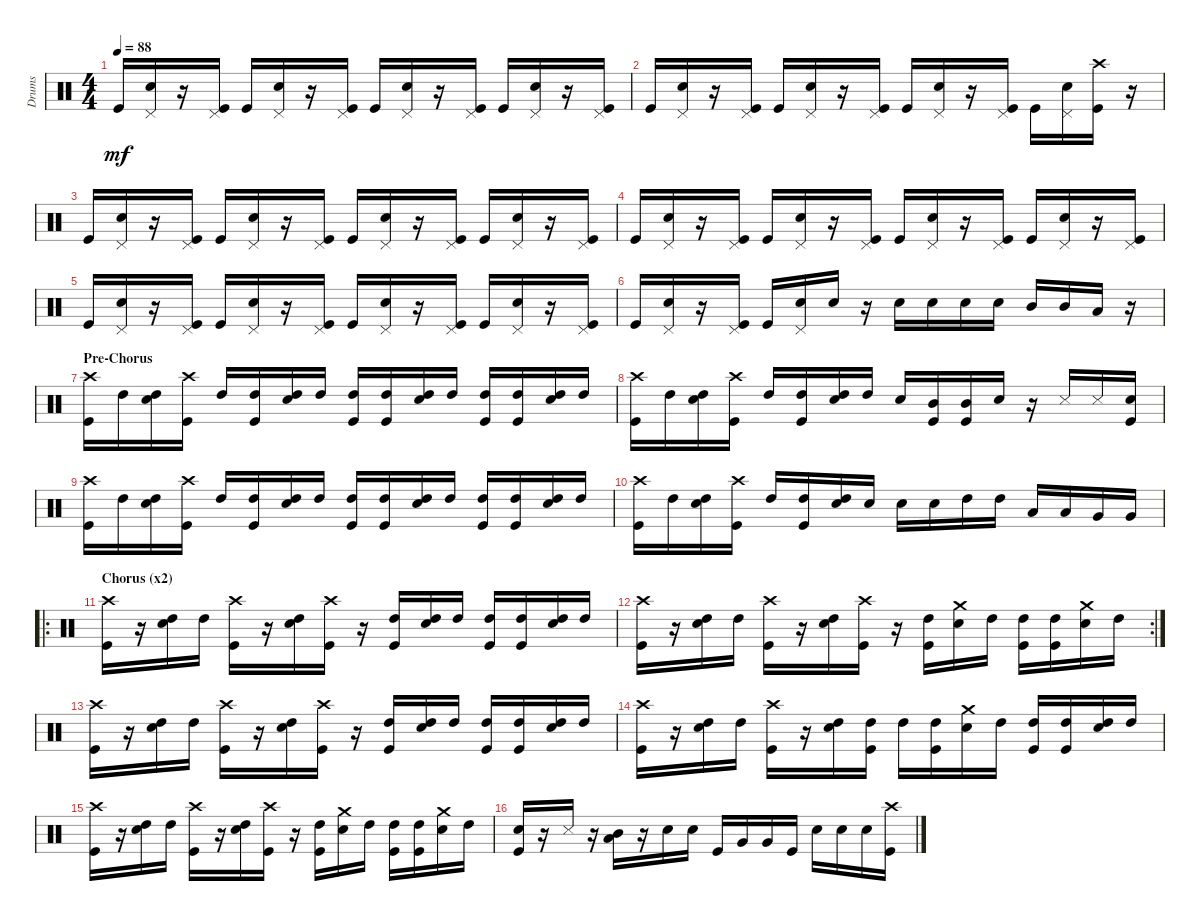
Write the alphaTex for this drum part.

\track ("Drums" "Drums") {instrument percussion}
\staff {score}
\articulation defaults
\ts (4 4)
\tempo 88
\clef neutral
\ks c "Kick (hit)".16{dy mf}
("Snare (hit) 2" "Pedal Hi-Hat (hit)").16 r.16 ("Kick (hit)" "Pedal Hi-Hat (hit)").16 "Kick (hit)".16 ("Snare (hit) 2" "Pedal Hi-Hat (hit)").16 r.16 ("Pedal Hi-Hat (hit)" "Kick (hit)").16 "Kick (hit)".16 ("Snare (hit) 2" "Pedal Hi-Hat (hit)").16 r.16 ("Kick (hit)" "Pedal Hi-Hat (hit)").16 "Kick (hit)".16 ("Snare (hit) 2" "Pedal Hi-Hat (hit)").16 r.16 ("Kick (hit)" "Pedal Hi-Hat (hit)").16 |
"Kick (hit)".16 ("Snare (hit) 2" "Pedal Hi-Hat (hit)").16 r.16 ("Kick (hit)" "Pedal Hi-Hat (hit)").16 "Kick (hit)".16 ("Snare (hit) 2" "Pedal Hi-Hat (hit)").16 r.16 ("Pedal Hi-Hat (hit)" "Kick (hit)").16 "Kick (hit)".16 ("Snare (hit) 2" "Pedal Hi-Hat (hit)").16 r.16 ("Kick (hit)" "Pedal Hi-Hat (hit)").16 "Kick (hit)".16 ("Snare (hit) 2" "Pedal Hi-Hat (hit)").16 ("Kick (hit)" "Crash high (hit)").16 r.16 |
"Kick (hit)".16 ("Snare (hit) 2" "Pedal Hi-Hat (hit)").16 r.16 ("Kick (hit)" "Pedal Hi-Hat (hit)").16 "Kick (hit)".16 ("Snare (hit) 2" "Pedal Hi-Hat (hit)").16 r.16 ("Pedal Hi-Hat (hit)" "Kick (hit)").16 "Kick (hit)".16 ("Snare (hit) 2" "Pedal Hi-Hat (hit)").16 r.16 ("Kick (hit)" "Pedal Hi-Hat (hit)").16 "Kick (hit)".16 ("Snare (hit) 2" "Pedal Hi-Hat (hit)").16 r.16 ("Kick (hit)" "Pedal Hi-Hat (hit)").16 |
"Kick (hit)".16 ("Snare (hit) 2" "Pedal Hi-Hat (hit)").16 r.16 ("Kick (hit)" "Pedal Hi-Hat (hit)").16 "Kick (hit)".16 ("Snare (hit) 2" "Pedal Hi-Hat (hit)").16 r.16 ("Pedal Hi-Hat (hit)" "Kick (hit)").16 "Kick (hit)".16 ("Snare (hit) 2" "Pedal Hi-Hat (hit)").16 r.16 ("Kick (hit)" "Pedal Hi-Hat (hit)").16 "Kick (hit)".16 ("Snare (hit) 2" "Pedal Hi-Hat (hit)").16 r.16 ("Kick (hit)" "Pedal Hi-Hat (hit)").16 |
"Kick (hit)".16 ("Snare (hit) 2" "Pedal Hi-Hat (hit)").16 r.16 ("Kick (hit)" "Pedal Hi-Hat (hit)").16 "Kick (hit)".16 ("Snare (hit) 2" "Pedal Hi-Hat (hit)").16 r.16 ("Pedal Hi-Hat (hit)" "Kick (hit)").16 "Kick (hit)".16 ("Snare (hit) 2" "Pedal Hi-Hat (hit)").16 r.16 ("Kick (hit)" "Pedal Hi-Hat (hit)").16 "Kick (hit)".16 ("Snare (hit) 2" "Pedal Hi-Hat (hit)").16 r.16 ("Kick (hit)" "Pedal Hi-Hat (hit)").16 |
"Kick (hit)".16 ("Snare (hit) 2" "Pedal Hi-Hat (hit)").16 r.16 ("Kick (hit)" "Pedal Hi-Hat (hit)").16 "Kick (hit)".16 ("Snare (hit) 2" "Pedal Hi-Hat (hit)").16 "Snare (hit) 2".16 r.16 "Snare (hit) 2".16 "Snare (hit) 2".16 "Snare (hit) 2".16 "Snare (hit) 2".16 "Mid Tom (hit)".16 "Mid Tom (hit)".16 "Low Tom (hit)".16 r.16 |
\section ("" "Pre-Chorus")
("Kick (hit)" "Crash high (hit)").16 "High Tom (hit)".16 ("High Tom (hit)" "Snare (hit) 2").16 ("Kick (hit)" "Crash high (hit)").16 "High Tom (hit)".16 ("High Tom (hit)" "Kick (hit)").16 ("High Tom (hit)" "Snare (hit) 2").16 "High Tom (hit)".16 ("Kick (hit)" "High Tom (hit)").16 ("High Tom (hit)" "Kick (hit)").16 ("High Tom (hit)" "Snare (hit) 2").16 "High Tom (hit)".16 ("Kick (hit)" "High Tom (hit)").16 ("High Tom (hit)" "Kick (hit)").16 ("High Tom (hit)" "Snare (hit) 2").16 "High Tom (hit)".16 |
("Kick (hit)" "Crash high (hit)").16 "High Tom (hit)".16 ("High Tom (hit)" "Snare (hit) 2").16 ("Kick (hit)" "Crash high (hit)").16 "High Tom (hit)".16 ("High Tom (hit)" "Kick (hit)").16 ("High Tom (hit)" "Snare (hit) 2").16 "High Tom (hit)".16 "Snare (hit) 2".16 ("Kick (hit)" "Mid Tom (hit)").16 ("Kick (hit)" "Mid Tom (hit)").16 "Snare (hit) 2".16 r.16 "Snare (side stick) 3".16 "Snare (side stick) 3".16 ("Snare (hit) 2" "Kick (hit)").16 |
("Kick (hit)" "Crash high (hit)").16 "High Tom (hit)".16 ("High Tom (hit)" "Snare (hit) 2").16 ("Kick (hit)" "Crash high (hit)").16 "High Tom (hit)".16 ("High Tom (hit)" "Kick (hit)").16 ("High Tom (hit)" "Snare (hit) 2").16 "High Tom (hit)".16 ("Kick (hit)" "High Tom (hit)").16 ("High Tom (hit)" "Kick (hit)").16 ("High Tom (hit)" "Snare (hit) 2").16 "High Tom (hit)".16 ("Kick (hit)" "High Tom (hit)").16 ("High Tom (hit)" "Kick (hit)").16 ("High Tom (hit)" "Snare (hit) 2").16 "High Tom (hit)".16 |
("Kick (hit)" "Crash high (hit)").16 "High Tom (hit)".16 ("High Tom (hit)" "Snare (hit) 2").16 ("Kick (hit)" "Crash high (hit)").16 "High Tom (hit)".16 ("High Tom (hit)" "Kick (hit)").16 ("High Tom (hit)" "Snare (hit) 2").16 "Snare (hit) 2".16 "Snare (hit) 2".16 "Snare (hit) 2".16 "High Tom (hit)".16 "High Tom (hit)".16 "Low Tom (hit)".16 "Low Tom (hit)".16 "Very Low Tom (hit)".16 "Very Low Tom (hit)".16 |
\ro
\section ("" "Chorus (x2)")
("Kick (hit)" "Crash high (hit)").16 r.16 ("Snare (hit) 2" "High Tom (hit)").16 "High Tom (hit)".16 ("Kick (hit)" "Crash high (hit)").16 r.16 ("Snare (hit) 2" "High Tom (hit)").16 ("Kick (hit)" "Crash high (hit)").16 r.16 ("Kick (hit)" "High Tom (hit)").16 ("Snare (hit) 2" "High Tom (hit)").16 "High Tom (hit)".16 ("Kick (hit)" "High Tom (hit)").16 ("Kick (hit)" "High Tom (hit)").16 ("Snare (hit) 2" "High Tom (hit)").16 "High Tom (hit)".16 |
\rc 2
("Kick (hit)" "Crash high (hit)").16 r.16 ("Snare (hit) 2" "High Tom (hit)").16 "High Tom (hit)".16 ("Kick (hit)" "Crash high (hit)").16 r.16 ("Snare (hit) 2" "High Tom (hit)").16 ("Kick (hit)" "Crash high (hit)").16 r.16 ("Kick (hit)" "High Tom (hit)").16 ("Snare (hit) 2" "Crash medium (hit)").16 "High Tom (hit)".16 ("Kick (hit)" "High Tom (hit)").16 ("Kick (hit)" "High Tom (hit)").16 ("Snare (hit) 2" "Crash medium (hit)").16 "High Tom (hit)".16 |
("Kick (hit)" "Crash high (hit)").16 r.16 ("Snare (hit) 2" "High Tom (hit)").16 "High Tom (hit)".16 ("Kick (hit)" "Crash high (hit)").16 r.16 ("Snare (hit) 2" "High Tom (hit)").16 ("Kick (hit)" "Crash high (hit)").16 r.16 ("Kick (hit)" "High Tom (hit)").16 ("Snare (hit) 2" "High Tom (hit)").16 "High Tom (hit)".16 ("Kick (hit)" "High Tom (hit)").16 ("Kick (hit)" "High Tom (hit)").16 ("Snare (hit) 2" "High Tom (hit)").16 "High Tom (hit)".16 |
("Kick (hit)" "Crash high (hit)").16 r.16 ("Snare (hit) 2" "High Tom (hit)").16 "High Tom (hit)".16 ("Kick (hit)" "Crash high (hit)").16 r.16 ("Snare (hit) 2" "High Tom (hit)").16 ("Kick (hit)" "High Tom (hit)").16 "High Tom (hit)".16 ("Kick (hit)" "High Tom (hit)").16 ("Snare (hit) 2" "Crash medium (hit)").16 "High Tom (hit)".16 ("Kick (hit)" "High Tom (hit)").16 ("Kick (hit)" "High Tom (hit)").16 ("Snare (hit) 2" "High Tom (hit)").16 "High Tom (hit)".16 |
("Kick (hit)" "Crash high (hit)").16 r.16 ("Snare (hit) 2" "High Tom (hit)").16 "High Tom (hit)".16 ("Kick (hit)" "Crash high (hit)").16 r.16 ("Snare (hit) 2" "High Tom (hit)").16 ("Kick (hit)" "Crash high (hit)").16 r.16 ("Kick (hit)" "High Tom (hit)").16 ("Snare (hit) 2" "Crash medium (hit)").16 "High Tom (hit)".16 ("Kick (hit)" "High Tom (hit)").16 ("Kick (hit)" "High Tom (hit)").16 ("Snare (hit) 2" "Crash medium (hit)").16 "High Tom (hit)".16 |
("Kick (hit)" "Snare (hit) 2").16 r.16 "Snare (side stick) 3".16 r.16 ("Mid Tom (hit)" "Low Tom (hit)").16 r.16 "Snare (hit) 2".16 "Snare (hit) 2".16 "Kick (hit)".16 "Very Low Tom (hit)".16 "Very Low Tom (hit)".16 "Kick (hit)".16 "Snare (hit) 2".16 "Snare (hit) 2".16 "Snare (hit) 2".16 ("Kick (hit)" "Crash high (hit)").16
